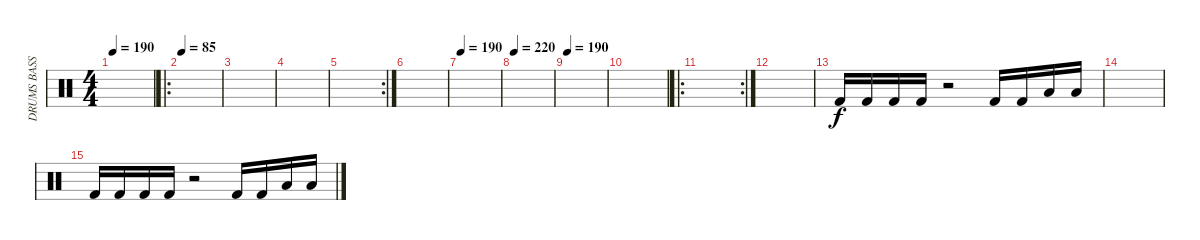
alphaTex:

\track ("DRUMS BASS" "DRUMS BASS") {instrument percussion}
\staff {score}
\articulation defaults
\ts (4 4)
\tempo 190
\clef neutral
\ks c
|
\ro
\tempo 85
|
|
|
\rc 2
|
|
\tempo 190
|
\tempo 220
|
\tempo 190
|
|
\ro
\rc 2
|
|
"Kick (hit) 2".16 "Kick (hit) 2".16 "Kick (hit) 2".16 "Kick (hit) 2".16 r.2 "Kick (hit) 2".16 "Kick (hit) 2".16 "Low Tom (hit)".16 "Low Tom (hit)".16 |
|
"Kick (hit) 2".16 "Kick (hit) 2".16 "Kick (hit) 2".16 "Kick (hit) 2".16 r.2 "Kick (hit) 2".16 "Kick (hit) 2".16 "Low Tom (hit)".16 "Low Tom (hit)".16
